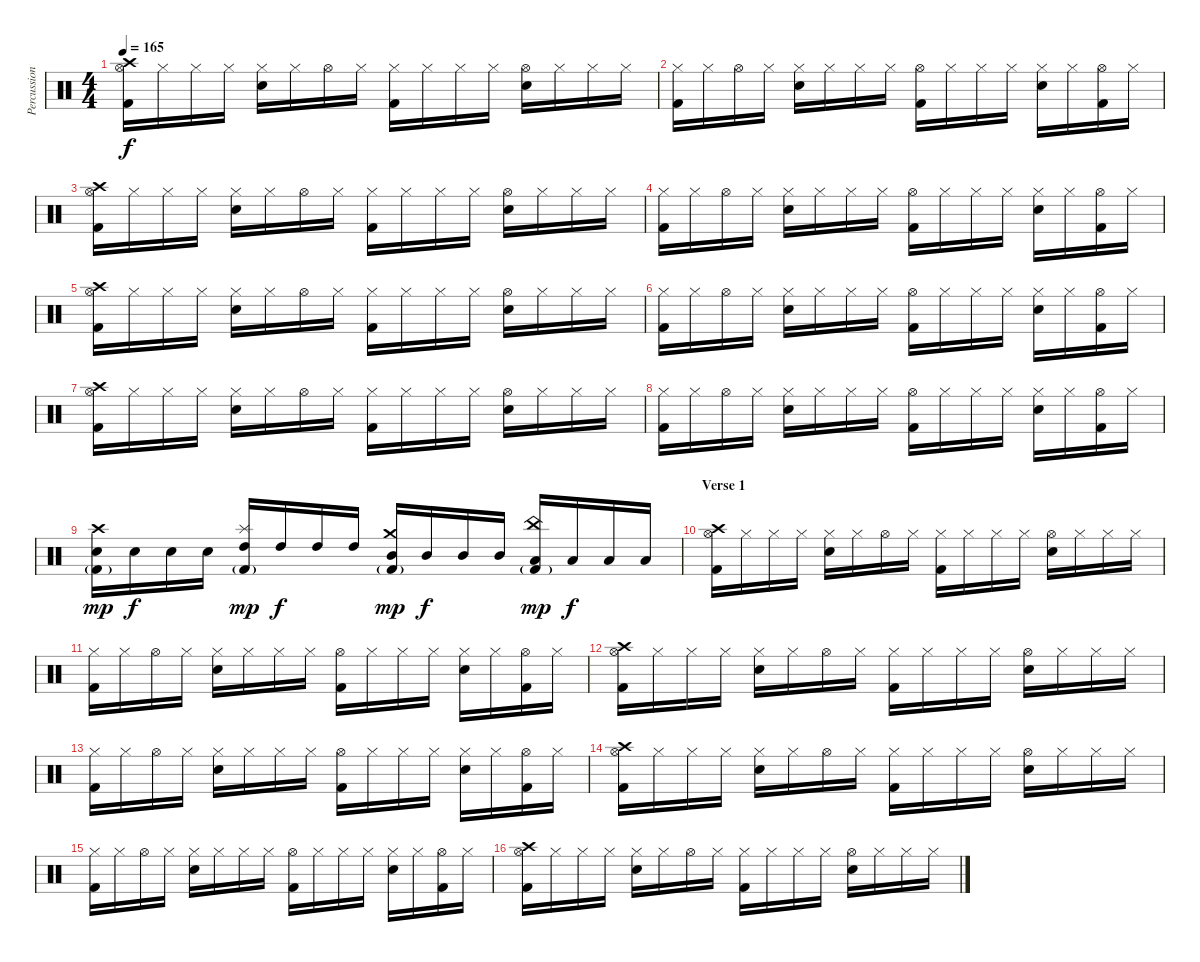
\track ("Percussions" "Percussion") {instrument percussion}
\staff {score}
\articulation defaults
\ts (4 4)
\tempo 165
\clef neutral
\ks c
("Hi-Hat (open)" "Crash high (hit)" "Kick (hit) 2").16{dy f} "Hi-Hat (closed)".16 "Hi-Hat (closed)".16 "Hi-Hat (closed)".16 ("Hi-Hat (closed)" "Electric Snare (hit)").16 "Hi-Hat (closed)".16 "Hi-Hat (open)".16 "Hi-Hat (closed)".16 ("Hi-Hat (closed)" "Kick (hit) 2").16 "Hi-Hat (closed)".16 "Hi-Hat (closed)".16 "Hi-Hat (closed)".16 ("Hi-Hat (open)" "Electric Snare (hit)").16 "Hi-Hat (closed)".16 "Hi-Hat (closed)".16 "Hi-Hat (closed)".16 |
("Hi-Hat (closed)" "Kick (hit) 2").16 "Hi-Hat (closed)".16 "Hi-Hat (open)".16 "Hi-Hat (closed)".16 ("Hi-Hat (closed)" "Electric Snare (hit)").16 "Hi-Hat (closed)".16 "Hi-Hat (closed)".16 "Hi-Hat (closed)".16 ("Hi-Hat (open)" "Kick (hit) 2").16 "Hi-Hat (closed)".16 "Hi-Hat (closed)".16 "Hi-Hat (closed)".16 ("Hi-Hat (closed)" "Electric Snare (hit)").16 "Hi-Hat (closed)".16 ("Hi-Hat (open)" "Kick (hit) 2").16 "Hi-Hat (closed)".16 |
("Hi-Hat (open)" "Crash high (hit)" "Kick (hit) 2").16 "Hi-Hat (closed)".16 "Hi-Hat (closed)".16 "Hi-Hat (closed)".16 ("Hi-Hat (closed)" "Electric Snare (hit)").16 "Hi-Hat (closed)".16 "Hi-Hat (open)".16 "Hi-Hat (closed)".16 ("Hi-Hat (closed)" "Kick (hit) 2").16 "Hi-Hat (closed)".16 "Hi-Hat (closed)".16 "Hi-Hat (closed)".16 ("Hi-Hat (open)" "Electric Snare (hit)").16 "Hi-Hat (closed)".16 "Hi-Hat (closed)".16 "Hi-Hat (closed)".16 |
("Hi-Hat (closed)" "Kick (hit) 2").16 "Hi-Hat (closed)".16 "Hi-Hat (open)".16 "Hi-Hat (closed)".16 ("Hi-Hat (closed)" "Electric Snare (hit)").16 "Hi-Hat (closed)".16 "Hi-Hat (closed)".16 "Hi-Hat (closed)".16 ("Hi-Hat (open)" "Kick (hit) 2").16 "Hi-Hat (closed)".16 "Hi-Hat (closed)".16 "Hi-Hat (closed)".16 ("Hi-Hat (closed)" "Electric Snare (hit)").16 "Hi-Hat (closed)".16 ("Hi-Hat (open)" "Kick (hit) 2").16 "Hi-Hat (closed)".16 |
("Hi-Hat (open)" "Crash high (hit)" "Kick (hit) 2").16 "Hi-Hat (closed)".16 "Hi-Hat (closed)".16 "Hi-Hat (closed)".16 ("Hi-Hat (closed)" "Electric Snare (hit)").16 "Hi-Hat (closed)".16 "Hi-Hat (open)".16 "Hi-Hat (closed)".16 ("Hi-Hat (closed)" "Kick (hit) 2").16 "Hi-Hat (closed)".16 "Hi-Hat (closed)".16 "Hi-Hat (closed)".16 ("Hi-Hat (open)" "Electric Snare (hit)").16 "Hi-Hat (closed)".16 "Hi-Hat (closed)".16 "Hi-Hat (closed)".16 |
("Hi-Hat (closed)" "Kick (hit) 2").16 "Hi-Hat (closed)".16 "Hi-Hat (open)".16 "Hi-Hat (closed)".16 ("Hi-Hat (closed)" "Electric Snare (hit)").16 "Hi-Hat (closed)".16 "Hi-Hat (closed)".16 "Hi-Hat (closed)".16 ("Hi-Hat (open)" "Kick (hit) 2").16 "Hi-Hat (closed)".16 "Hi-Hat (closed)".16 "Hi-Hat (closed)".16 ("Hi-Hat (closed)" "Electric Snare (hit)").16 "Hi-Hat (closed)".16 ("Hi-Hat (open)" "Kick (hit) 2").16 "Hi-Hat (closed)".16 |
("Hi-Hat (open)" "Crash high (hit)" "Kick (hit) 2").16 "Hi-Hat (closed)".16 "Hi-Hat (closed)".16 "Hi-Hat (closed)".16 ("Hi-Hat (closed)" "Electric Snare (hit)").16 "Hi-Hat (closed)".16 "Hi-Hat (open)".16 "Hi-Hat (closed)".16 ("Hi-Hat (closed)" "Kick (hit) 2").16 "Hi-Hat (closed)".16 "Hi-Hat (closed)".16 "Hi-Hat (closed)".16 ("Hi-Hat (open)" "Electric Snare (hit)").16 "Hi-Hat (closed)".16 "Hi-Hat (closed)".16 "Hi-Hat (closed)".16 |
("Hi-Hat (closed)" "Kick (hit) 2").16 "Hi-Hat (closed)".16 "Hi-Hat (open)".16 "Hi-Hat (closed)".16 ("Hi-Hat (closed)" "Electric Snare (hit)").16 "Hi-Hat (closed)".16 "Hi-Hat (closed)".16 "Hi-Hat (closed)".16 ("Hi-Hat (open)" "Kick (hit) 2").16 "Hi-Hat (closed)".16 "Hi-Hat (closed)".16 "Hi-Hat (closed)".16 ("Hi-Hat (closed)" "Electric Snare (hit)").16 "Hi-Hat (closed)".16 ("Hi-Hat (open)" "Kick (hit) 2").16 "Hi-Hat (closed)".16 |
("Crash high (hit)" "Electric Snare (hit)" "Kick (hit) 2"{g}).16{dy mp} "Electric Snare (hit)".16{dy f} "Electric Snare (hit)".16 "Electric Snare (hit)".16 ("Splash (hit)" "High Tom (hit)" "Kick (hit) 2"{g}).16{dy mp} "High Tom (hit)".16{dy f} "High Tom (hit)".16 "High Tom (hit)".16 ("Crash medium (hit)" "Mid Tom (hit)" "Kick (hit) 2"{g}).16{dy mp} "Mid Tom (hit)".16{dy f} "Mid Tom (hit)".16 "Mid Tom (hit)".16 ("China (hit)" "Low Tom (hit)" "Kick (hit) 2"{g}).16{dy mp} "Low Tom (hit)".16{dy f} "Low Tom (hit)".16 "Low Tom (hit)".16 |
\section ("" "Verse 1")
("Hi-Hat (open)" "Crash high (hit)" "Kick (hit) 2").16 "Hi-Hat (closed)".16 "Hi-Hat (closed)".16 "Hi-Hat (closed)".16 ("Hi-Hat (closed)" "Electric Snare (hit)").16 "Hi-Hat (closed)".16 "Hi-Hat (open)".16 "Hi-Hat (closed)".16 ("Hi-Hat (closed)" "Kick (hit) 2").16 "Hi-Hat (closed)".16 "Hi-Hat (closed)".16 "Hi-Hat (closed)".16 ("Hi-Hat (open)" "Electric Snare (hit)").16 "Hi-Hat (closed)".16 "Hi-Hat (closed)".16 "Hi-Hat (closed)".16 |
("Hi-Hat (closed)" "Kick (hit) 2").16 "Hi-Hat (closed)".16 "Hi-Hat (open)".16 "Hi-Hat (closed)".16 ("Hi-Hat (closed)" "Electric Snare (hit)").16 "Hi-Hat (closed)".16 "Hi-Hat (closed)".16 "Hi-Hat (closed)".16 ("Hi-Hat (open)" "Kick (hit) 2").16 "Hi-Hat (closed)".16 "Hi-Hat (closed)".16 "Hi-Hat (closed)".16 ("Hi-Hat (closed)" "Electric Snare (hit)").16 "Hi-Hat (closed)".16 ("Hi-Hat (open)" "Kick (hit) 2").16 "Hi-Hat (closed)".16 |
("Hi-Hat (open)" "Crash high (hit)" "Kick (hit) 2").16 "Hi-Hat (closed)".16 "Hi-Hat (closed)".16 "Hi-Hat (closed)".16 ("Hi-Hat (closed)" "Electric Snare (hit)").16 "Hi-Hat (closed)".16 "Hi-Hat (open)".16 "Hi-Hat (closed)".16 ("Hi-Hat (closed)" "Kick (hit) 2").16 "Hi-Hat (closed)".16 "Hi-Hat (closed)".16 "Hi-Hat (closed)".16 ("Hi-Hat (open)" "Electric Snare (hit)").16 "Hi-Hat (closed)".16 "Hi-Hat (closed)".16 "Hi-Hat (closed)".16 |
("Hi-Hat (closed)" "Kick (hit) 2").16 "Hi-Hat (closed)".16 "Hi-Hat (open)".16 "Hi-Hat (closed)".16 ("Hi-Hat (closed)" "Electric Snare (hit)").16 "Hi-Hat (closed)".16 "Hi-Hat (closed)".16 "Hi-Hat (closed)".16 ("Hi-Hat (open)" "Kick (hit) 2").16 "Hi-Hat (closed)".16 "Hi-Hat (closed)".16 "Hi-Hat (closed)".16 ("Hi-Hat (closed)" "Electric Snare (hit)").16 "Hi-Hat (closed)".16 ("Hi-Hat (open)" "Kick (hit) 2").16 "Hi-Hat (closed)".16 |
("Hi-Hat (open)" "Crash high (hit)" "Kick (hit) 2").16 "Hi-Hat (closed)".16 "Hi-Hat (closed)".16 "Hi-Hat (closed)".16 ("Hi-Hat (closed)" "Electric Snare (hit)").16 "Hi-Hat (closed)".16 "Hi-Hat (open)".16 "Hi-Hat (closed)".16 ("Hi-Hat (closed)" "Kick (hit) 2").16 "Hi-Hat (closed)".16 "Hi-Hat (closed)".16 "Hi-Hat (closed)".16 ("Hi-Hat (open)" "Electric Snare (hit)").16 "Hi-Hat (closed)".16 "Hi-Hat (closed)".16 "Hi-Hat (closed)".16 |
("Hi-Hat (closed)" "Kick (hit) 2").16 "Hi-Hat (closed)".16 "Hi-Hat (open)".16 "Hi-Hat (closed)".16 ("Hi-Hat (closed)" "Electric Snare (hit)").16 "Hi-Hat (closed)".16 "Hi-Hat (closed)".16 "Hi-Hat (closed)".16 ("Hi-Hat (open)" "Kick (hit) 2").16 "Hi-Hat (closed)".16 "Hi-Hat (closed)".16 "Hi-Hat (closed)".16 ("Hi-Hat (closed)" "Electric Snare (hit)").16 "Hi-Hat (closed)".16 ("Hi-Hat (open)" "Kick (hit) 2").16 "Hi-Hat (closed)".16 |
("Hi-Hat (open)" "Crash high (hit)" "Kick (hit) 2").16 "Hi-Hat (closed)".16 "Hi-Hat (closed)".16 "Hi-Hat (closed)".16 ("Hi-Hat (closed)" "Electric Snare (hit)").16 "Hi-Hat (closed)".16 "Hi-Hat (open)".16 "Hi-Hat (closed)".16 ("Hi-Hat (closed)" "Kick (hit) 2").16 "Hi-Hat (closed)".16 "Hi-Hat (closed)".16 "Hi-Hat (closed)".16 ("Hi-Hat (open)" "Electric Snare (hit)").16 "Hi-Hat (closed)".16 "Hi-Hat (closed)".16 "Hi-Hat (closed)".16
